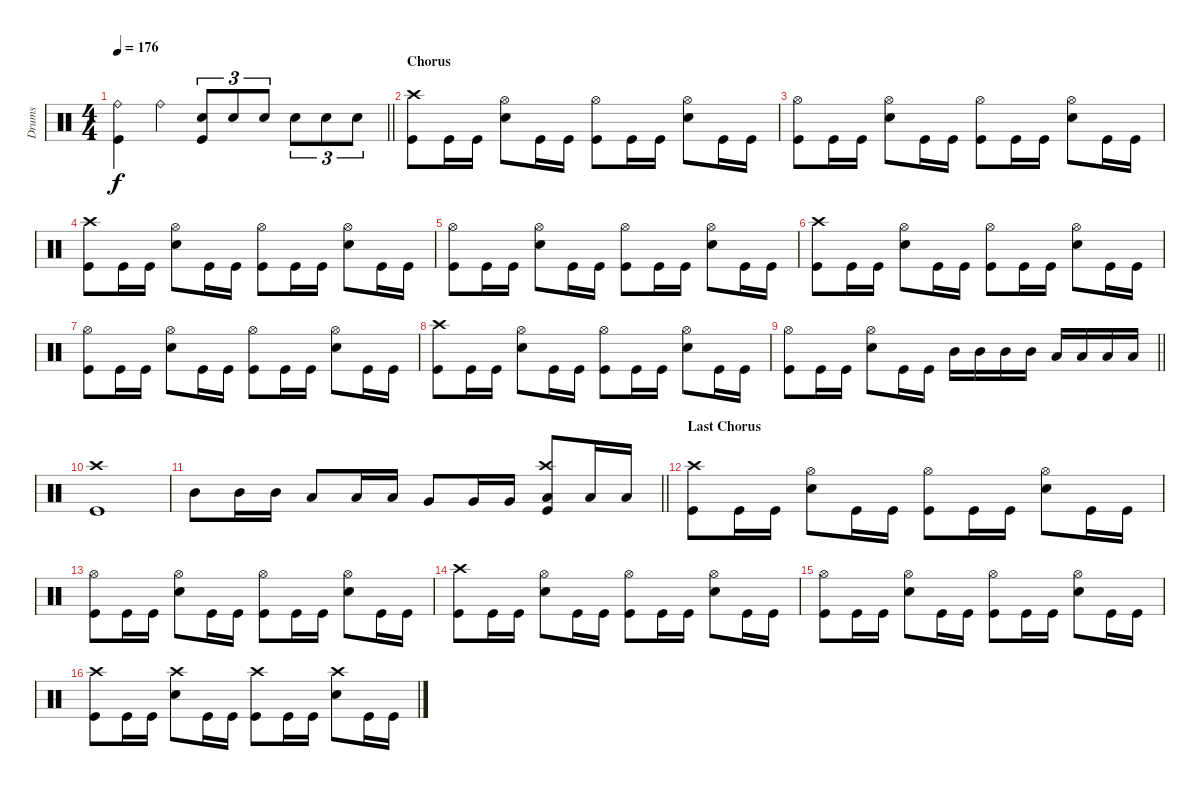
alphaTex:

\track ("Drums" "Drums") {instrument percussion}
\staff {score}
\articulation defaults
\ts (4 4)
\tempo 176
\clef neutral
\barLineRight lightlight
\ks c
("Ride (bell)" "Kick (hit)").4{dy f} "Ride (bell)".4 ("Snare (hit) 2" "Kick (hit)").8{tu (3 2)} "Snare (hit) 2".8{tu (3 2)} "Snare (hit) 2".8{tu (3 2)} "Snare (hit) 2".8{tu (3 2)} "Snare (hit) 2".8{tu (3 2)} "Snare (hit) 2".8{tu (3 2)} |
\section ("" "Chorus")
("Crash high (hit)" "Kick (hit)").8 "Kick (hit)".16 "Kick (hit)".16 ("Hi-Hat (open)" "Snare (hit) 2").8 "Kick (hit)".16 "Kick (hit)".16 ("Hi-Hat (open)" "Kick (hit)").8 "Kick (hit)".16 "Kick (hit)".16 ("Hi-Hat (open)" "Snare (hit) 2").8 "Kick (hit)".16 "Kick (hit)".16 |
("Hi-Hat (open)" "Kick (hit)").8 "Kick (hit)".16 "Kick (hit)".16 ("Hi-Hat (open)" "Snare (hit) 2").8 "Kick (hit)".16 "Kick (hit)".16 ("Hi-Hat (open)" "Kick (hit)").8 "Kick (hit)".16 "Kick (hit)".16 ("Hi-Hat (open)" "Snare (hit) 2").8 "Kick (hit)".16 "Kick (hit)".16 |
("Crash high (hit)" "Kick (hit)").8 "Kick (hit)".16 "Kick (hit)".16 ("Hi-Hat (open)" "Snare (hit) 2").8 "Kick (hit)".16 "Kick (hit)".16 ("Hi-Hat (open)" "Kick (hit)").8 "Kick (hit)".16 "Kick (hit)".16 ("Hi-Hat (open)" "Snare (hit) 2").8 "Kick (hit)".16 "Kick (hit)".16 |
("Hi-Hat (open)" "Kick (hit)").8 "Kick (hit)".16 "Kick (hit)".16 ("Hi-Hat (open)" "Snare (hit) 2").8 "Kick (hit)".16 "Kick (hit)".16 ("Hi-Hat (open)" "Kick (hit)").8 "Kick (hit)".16 "Kick (hit)".16 ("Hi-Hat (open)" "Snare (hit) 2").8 "Kick (hit)".16 "Kick (hit)".16 |
("Crash high (hit)" "Kick (hit)").8 "Kick (hit)".16 "Kick (hit)".16 ("Hi-Hat (open)" "Snare (hit) 2").8 "Kick (hit)".16 "Kick (hit)".16 ("Hi-Hat (open)" "Kick (hit)").8 "Kick (hit)".16 "Kick (hit)".16 ("Hi-Hat (open)" "Snare (hit) 2").8 "Kick (hit)".16 "Kick (hit)".16 |
("Hi-Hat (open)" "Kick (hit)").8 "Kick (hit)".16 "Kick (hit)".16 ("Hi-Hat (open)" "Snare (hit) 2").8 "Kick (hit)".16 "Kick (hit)".16 ("Hi-Hat (open)" "Kick (hit)").8 "Kick (hit)".16 "Kick (hit)".16 ("Hi-Hat (open)" "Snare (hit) 2").8 "Kick (hit)".16 "Kick (hit)".16 |
("Crash high (hit)" "Kick (hit)").8 "Kick (hit)".16 "Kick (hit)".16 ("Hi-Hat (open)" "Snare (hit) 2").8 "Kick (hit)".16 "Kick (hit)".16 ("Hi-Hat (open)" "Kick (hit)").8 "Kick (hit)".16 "Kick (hit)".16 ("Hi-Hat (open)" "Snare (hit) 2").8 "Kick (hit)".16 "Kick (hit)".16 |
\barLineRight lightlight
("Hi-Hat (open)" "Kick (hit)").8 "Kick (hit)".16 "Kick (hit)".16 ("Hi-Hat (open)" "Snare (hit) 2").8 "Kick (hit)".16 "Kick (hit)".16 "Mid Tom (hit)".16 "Mid Tom (hit)".16 "Mid Tom (hit)".16 "Mid Tom (hit)".16 "Low Tom (hit)".16 "Low Tom (hit)".16 "Low Tom (hit)".16 "Low Tom (hit)".16 |
("Kick (hit)" "Crash high (hit)").1 |
\barLineRight lightlight "Mid Tom (hit)".8 "Mid Tom (hit)".16 "Mid Tom (hit)".16 "Low Tom (hit)".8 "Low Tom (hit)".16 "Low Tom (hit)".16 "Very Low Tom (hit)".8 "Very Low Tom (hit)".16 "Very Low Tom (hit)".16
("Crash high (hit)" "Kick (hit)" "Low Floor Tom (hit)").8 "Low Floor Tom (hit)".16 "Low Floor Tom (hit)".16 |
\section ("" "Last Chorus")
("Crash high (hit)" "Kick (hit)").8 "Kick (hit)".16 "Kick (hit)".16 ("Hi-Hat (open)" "Snare (hit) 2").8 "Kick (hit)".16 "Kick (hit)".16 ("Hi-Hat (open)" "Kick (hit)").8 "Kick (hit)".16 "Kick (hit)".16 ("Hi-Hat (open)" "Snare (hit) 2").8 "Kick (hit)".16 "Kick (hit)".16 |
("Hi-Hat (open)" "Kick (hit)").8 "Kick (hit)".16 "Kick (hit)".16 ("Hi-Hat (open)" "Snare (hit) 2").8 "Kick (hit)".16 "Kick (hit)".16 ("Hi-Hat (open)" "Kick (hit)").8 "Kick (hit)".16 "Kick (hit)".16 ("Hi-Hat (open)" "Snare (hit) 2").8 "Kick (hit)".16 "Kick (hit)".16 |
("Crash high (hit)" "Kick (hit)").8 "Kick (hit)".16 "Kick (hit)".16 ("Hi-Hat (open)" "Snare (hit) 2").8 "Kick (hit)".16 "Kick (hit)".16 ("Hi-Hat (open)" "Kick (hit)").8 "Kick (hit)".16 "Kick (hit)".16 ("Hi-Hat (open)" "Snare (hit) 2").8 "Kick (hit)".16 "Kick (hit)".16 |
("Hi-Hat (open)" "Kick (hit)").8 "Kick (hit)".16 "Kick (hit)".16 ("Hi-Hat (open)" "Snare (hit) 2").8 "Kick (hit)".16 "Kick (hit)".16 ("Hi-Hat (open)" "Kick (hit)").8 "Kick (hit)".16 "Kick (hit)".16 ("Hi-Hat (open)" "Snare (hit) 2").8 "Kick (hit)".16 "Kick (hit)".16 |
("Crash high (hit)" "Kick (hit)").8 "Kick (hit)".16 "Kick (hit)".16 ("Crash high (hit)" "Snare (hit) 2").8 "Kick (hit)".16 "Kick (hit)".16 ("Crash high (hit)" "Kick (hit)").8 "Kick (hit)".16 "Kick (hit)".16 ("Crash high (hit)" "Snare (hit) 2").8 "Kick (hit)".16 "Kick (hit)".16
